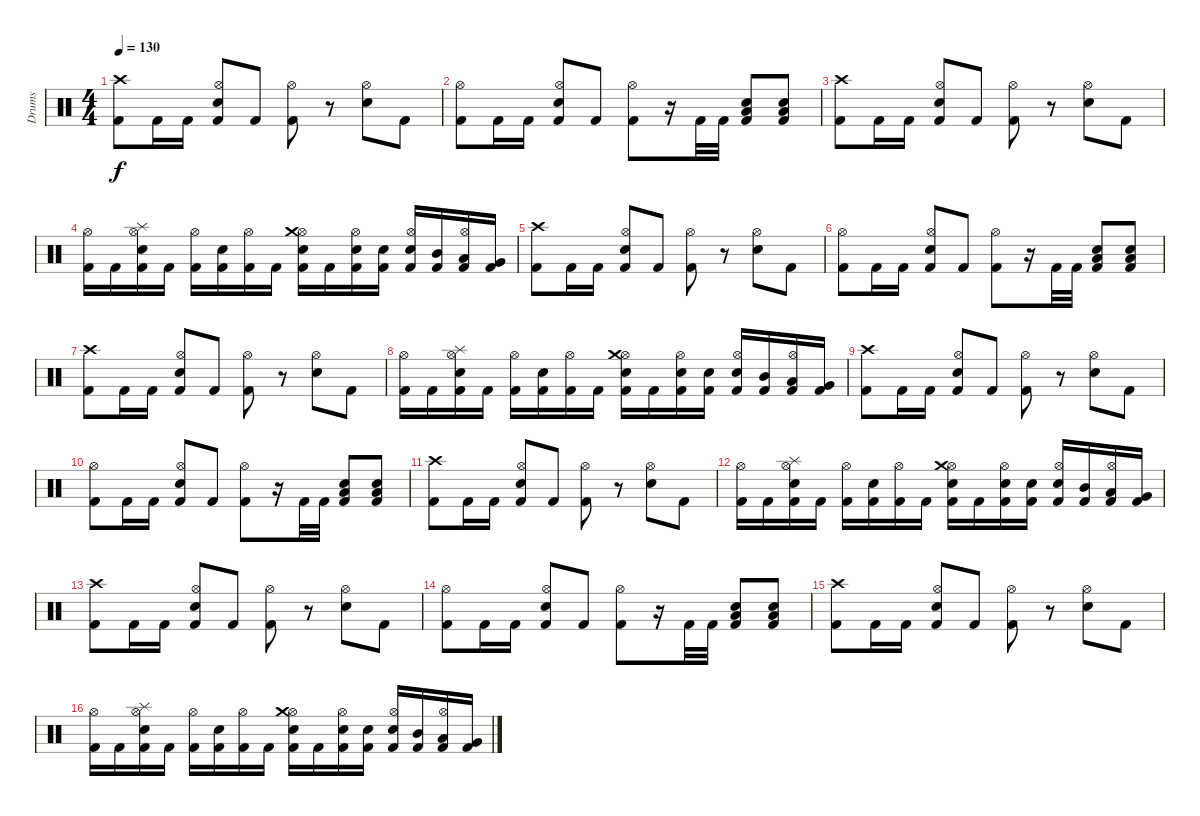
\track ("Drums" "Drums") {instrument percussion}
\staff {score}
\articulation defaults
\ts (4 4)
\tempo 130
\clef neutral
\ks c
("Crash high (hit)" "Kick (hit) 2").8{dy f} "Kick (hit) 2".16 "Kick (hit) 2".16 ("Hi-Hat (open)" "Electric Snare (hit)" "Kick (hit) 2").8 "Kick (hit) 2".8 ("Hi-Hat (open)" "Kick (hit) 2").8 r.8 ("Hi-Hat (open)" "Electric Snare (hit)").8 "Kick (hit) 2".8 |
("Hi-Hat (open)" "Kick (hit) 2").8 "Kick (hit) 2".16 "Kick (hit) 2".16 ("Hi-Hat (open)" "Electric Snare (hit)" "Kick (hit) 2").8 "Kick (hit) 2".8 ("Hi-Hat (open)" "Kick (hit) 2").8 r.16 "Kick (hit) 2".32 "Kick (hit) 2".32 ("Kick (hit) 2" "Low Floor Tom (hit)" "Electric Snare (hit)").8 ("Kick (hit) 2" "Low Floor Tom (hit)" "Electric Snare (hit)").8 |
("Crash high (hit)" "Kick (hit) 2").8 "Kick (hit) 2".16 "Kick (hit) 2".16 ("Hi-Hat (open)" "Electric Snare (hit)" "Kick (hit) 2").8 "Kick (hit) 2".8 ("Hi-Hat (open)" "Kick (hit) 2").8 r.8 ("Hi-Hat (open)" "Electric Snare (hit)").8 "Kick (hit) 2".8 |
("Hi-Hat (open)" "Kick (hit) 2").16 "Kick (hit) 2".16 ("Hi-Hat (open)" "Electric Snare (hit)" "Splash (hit)" "Kick (hit) 2").16 "Kick (hit) 2".16 ("Hi-Hat (open)" "Kick (hit) 2").16 ("Electric Snare (hit)" "Kick (hit) 2").16 ("Hi-Hat (open)" "Kick (hit) 2").16 "Kick (hit) 2".16 ("Hi-Hat (open)" "Electric Snare (hit)" "Crash medium (hit)" "Kick (hit) 2").16 "Kick (hit) 2".16 ("Hi-Hat (open)" "Electric Snare (hit)" "Kick (hit) 2").16 ("Electric Snare (hit)" "Kick (hit) 2").16 ("Hi-Hat (open)" "Electric Snare (hit)" "Kick (hit) 2").16 ("Mid Tom (hit)" "Kick (hit) 2").16 ("Hi-Hat (open)" "Low Tom (hit)" "Kick (hit) 2").16 ("Very Low Tom (hit)" "Kick (hit) 2").16 |
("Crash high (hit)" "Kick (hit) 2").8 "Kick (hit) 2".16 "Kick (hit) 2".16 ("Hi-Hat (open)" "Electric Snare (hit)" "Kick (hit) 2").8 "Kick (hit) 2".8 ("Hi-Hat (open)" "Kick (hit) 2").8 r.8 ("Hi-Hat (open)" "Electric Snare (hit)").8 "Kick (hit) 2".8 |
("Hi-Hat (open)" "Kick (hit) 2").8 "Kick (hit) 2".16 "Kick (hit) 2".16 ("Hi-Hat (open)" "Electric Snare (hit)" "Kick (hit) 2").8 "Kick (hit) 2".8 ("Hi-Hat (open)" "Kick (hit) 2").8 r.16 "Kick (hit) 2".32 "Kick (hit) 2".32 ("Kick (hit) 2" "Low Floor Tom (hit)" "Electric Snare (hit)").8 ("Kick (hit) 2" "Low Floor Tom (hit)" "Electric Snare (hit)").8 |
("Crash high (hit)" "Kick (hit) 2").8 "Kick (hit) 2".16 "Kick (hit) 2".16 ("Hi-Hat (open)" "Electric Snare (hit)" "Kick (hit) 2").8 "Kick (hit) 2".8 ("Hi-Hat (open)" "Kick (hit) 2").8 r.8 ("Hi-Hat (open)" "Electric Snare (hit)").8 "Kick (hit) 2".8 |
("Hi-Hat (open)" "Kick (hit) 2").16 "Kick (hit) 2".16 ("Hi-Hat (open)" "Electric Snare (hit)" "Splash (hit)" "Kick (hit) 2").16 "Kick (hit) 2".16 ("Hi-Hat (open)" "Kick (hit) 2").16 ("Electric Snare (hit)" "Kick (hit) 2").16 ("Hi-Hat (open)" "Kick (hit) 2").16 "Kick (hit) 2".16 ("Hi-Hat (open)" "Electric Snare (hit)" "Crash medium (hit)" "Kick (hit) 2").16 "Kick (hit) 2".16 ("Hi-Hat (open)" "Electric Snare (hit)" "Kick (hit) 2").16 ("Electric Snare (hit)" "Kick (hit) 2").16 ("Hi-Hat (open)" "Electric Snare (hit)" "Kick (hit) 2").16 ("Mid Tom (hit)" "Kick (hit) 2").16 ("Hi-Hat (open)" "Low Tom (hit)" "Kick (hit) 2").16 ("Very Low Tom (hit)" "Kick (hit) 2").16 |
("Crash high (hit)" "Kick (hit) 2").8 "Kick (hit) 2".16 "Kick (hit) 2".16 ("Hi-Hat (open)" "Electric Snare (hit)" "Kick (hit) 2").8 "Kick (hit) 2".8 ("Hi-Hat (open)" "Kick (hit) 2").8 r.8 ("Hi-Hat (open)" "Electric Snare (hit)").8 "Kick (hit) 2".8 |
("Hi-Hat (open)" "Kick (hit) 2").8 "Kick (hit) 2".16 "Kick (hit) 2".16 ("Hi-Hat (open)" "Electric Snare (hit)" "Kick (hit) 2").8 "Kick (hit) 2".8 ("Hi-Hat (open)" "Kick (hit) 2").8 r.16 "Kick (hit) 2".32 "Kick (hit) 2".32 ("Kick (hit) 2" "Low Floor Tom (hit)" "Electric Snare (hit)").8 ("Kick (hit) 2" "Low Floor Tom (hit)" "Electric Snare (hit)").8 |
("Crash high (hit)" "Kick (hit) 2").8 "Kick (hit) 2".16 "Kick (hit) 2".16 ("Hi-Hat (open)" "Electric Snare (hit)" "Kick (hit) 2").8 "Kick (hit) 2".8 ("Hi-Hat (open)" "Kick (hit) 2").8 r.8 ("Hi-Hat (open)" "Electric Snare (hit)").8 "Kick (hit) 2".8 |
("Hi-Hat (open)" "Kick (hit) 2").16 "Kick (hit) 2".16 ("Hi-Hat (open)" "Electric Snare (hit)" "Splash (hit)" "Kick (hit) 2").16 "Kick (hit) 2".16 ("Hi-Hat (open)" "Kick (hit) 2").16 ("Electric Snare (hit)" "Kick (hit) 2").16 ("Hi-Hat (open)" "Kick (hit) 2").16 "Kick (hit) 2".16 ("Hi-Hat (open)" "Electric Snare (hit)" "Crash medium (hit)" "Kick (hit) 2").16 "Kick (hit) 2".16 ("Hi-Hat (open)" "Electric Snare (hit)" "Kick (hit) 2").16 ("Electric Snare (hit)" "Kick (hit) 2").16 ("Hi-Hat (open)" "Electric Snare (hit)" "Kick (hit) 2").16 ("Mid Tom (hit)" "Kick (hit) 2").16 ("Hi-Hat (open)" "Low Tom (hit)" "Kick (hit) 2").16 ("Very Low Tom (hit)" "Kick (hit) 2").16 |
("Crash high (hit)" "Kick (hit) 2").8 "Kick (hit) 2".16 "Kick (hit) 2".16 ("Hi-Hat (open)" "Electric Snare (hit)" "Kick (hit) 2").8 "Kick (hit) 2".8 ("Hi-Hat (open)" "Kick (hit) 2").8 r.8 ("Hi-Hat (open)" "Electric Snare (hit)").8 "Kick (hit) 2".8 |
("Hi-Hat (open)" "Kick (hit) 2").8 "Kick (hit) 2".16 "Kick (hit) 2".16 ("Hi-Hat (open)" "Electric Snare (hit)" "Kick (hit) 2").8 "Kick (hit) 2".8 ("Hi-Hat (open)" "Kick (hit) 2").8 r.16 "Kick (hit) 2".32 "Kick (hit) 2".32 ("Kick (hit) 2" "Low Floor Tom (hit)" "Electric Snare (hit)").8 ("Kick (hit) 2" "Low Floor Tom (hit)" "Electric Snare (hit)").8 |
("Crash high (hit)" "Kick (hit) 2").8 "Kick (hit) 2".16 "Kick (hit) 2".16 ("Hi-Hat (open)" "Electric Snare (hit)" "Kick (hit) 2").8 "Kick (hit) 2".8 ("Hi-Hat (open)" "Kick (hit) 2").8 r.8 ("Hi-Hat (open)" "Electric Snare (hit)").8 "Kick (hit) 2".8 |
("Hi-Hat (open)" "Kick (hit) 2").16 "Kick (hit) 2".16 ("Hi-Hat (open)" "Electric Snare (hit)" "Splash (hit)" "Kick (hit) 2").16 "Kick (hit) 2".16 ("Hi-Hat (open)" "Kick (hit) 2").16 ("Electric Snare (hit)" "Kick (hit) 2").16 ("Hi-Hat (open)" "Kick (hit) 2").16 "Kick (hit) 2".16 ("Hi-Hat (open)" "Electric Snare (hit)" "Crash medium (hit)" "Kick (hit) 2").16 "Kick (hit) 2".16 ("Hi-Hat (open)" "Electric Snare (hit)" "Kick (hit) 2").16 ("Electric Snare (hit)" "Kick (hit) 2").16 ("Hi-Hat (open)" "Electric Snare (hit)" "Kick (hit) 2").16 ("Mid Tom (hit)" "Kick (hit) 2").16 ("Hi-Hat (open)" "Low Tom (hit)" "Kick (hit) 2").16 ("Very Low Tom (hit)" "Kick (hit) 2").16
